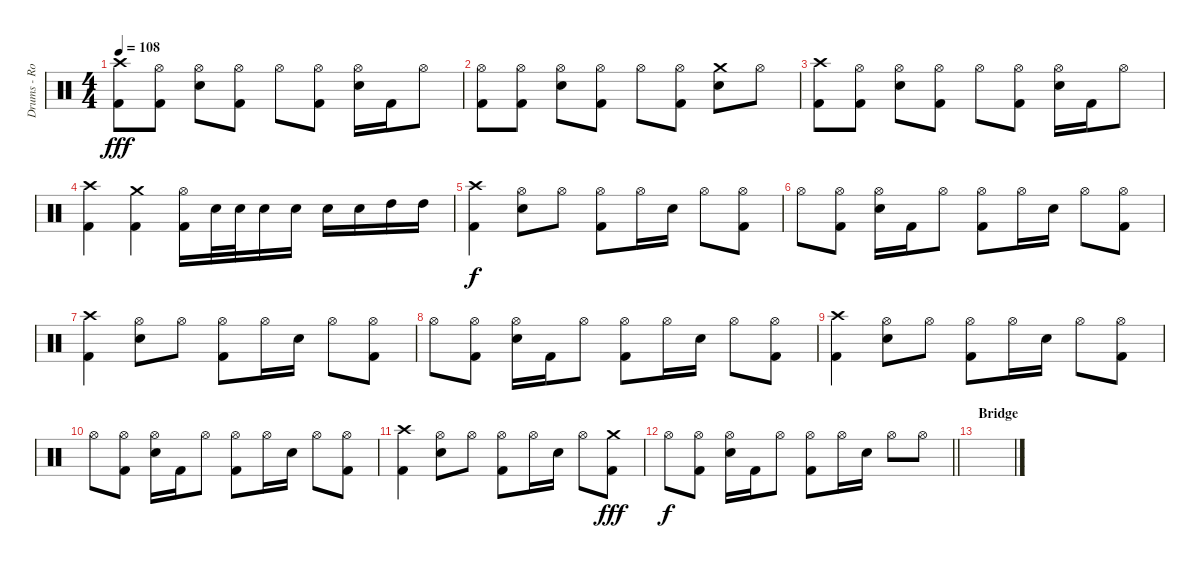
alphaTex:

\track ("Drums - Rob Bourdon" "Drums - Ro") {instrument percussion}
\staff {score}
\articulation defaults
\ts (4 4)
\tempo 108
\clef neutral
\ks c
("Crash high (hit)" "Kick (hit) 2").8{dy fff} ("Hi-Hat (open)" "Kick (hit) 2").8 ("Hi-Hat (open)" "Snare (hit) 2").8 ("Hi-Hat (open)" "Kick (hit) 2").8 "Hi-Hat (open)".8 ("Hi-Hat (open)" "Kick (hit) 2").8 ("Hi-Hat (open)" "Snare (hit) 2").16 "Kick (hit) 2".16 "Hi-Hat (open)".8 |
("Hi-Hat (open)" "Kick (hit) 2").8 ("Hi-Hat (open)" "Kick (hit) 2").8 ("Hi-Hat (open)" "Snare (hit) 2").8 ("Hi-Hat (open)" "Kick (hit) 2").8 "Hi-Hat (open)".8 ("Hi-Hat (open)" "Kick (hit) 2").8 ("Crash medium (hit)" "Snare (hit) 2").8 "Hi-Hat (open)".8 |
("Crash high (hit)" "Kick (hit) 2").8 ("Hi-Hat (open)" "Kick (hit) 2").8 ("Hi-Hat (open)" "Snare (hit) 2").8 ("Hi-Hat (open)" "Kick (hit) 2").8 "Hi-Hat (open)".8 ("Hi-Hat (open)" "Kick (hit) 2").8 ("Hi-Hat (open)" "Snare (hit) 2").16 "Kick (hit) 2".16 "Hi-Hat (open)".8 |
("Crash high (hit)" "Kick (hit) 2").4 ("Crash medium (hit)" "Kick (hit) 2").4 ("Hi-Hat (open)" "Kick (hit) 2").16 "Snare (hit) 2".32 "Snare (hit) 2".32 "Snare (hit) 2".16 "Snare (hit) 2".16 "Snare (hit) 2".16 "Snare (hit) 2".16 "High Tom (hit)".16 "High Tom (hit)".16 |
("Crash high (hit)" "Kick (hit) 2").4{dy f} ("Hi-Hat (open)" "Snare (hit) 2").8 "Hi-Hat (open)".8 ("Hi-Hat (open)" "Kick (hit) 2").8 "Hi-Hat (open)".16 "Snare (hit) 2".16 "Hi-Hat (open)".8 ("Hi-Hat (open)" "Kick (hit) 2").8 |
"Hi-Hat (open)".8 ("Hi-Hat (open)" "Kick (hit) 2").8 ("Hi-Hat (open)" "Snare (hit) 2").16 "Kick (hit) 2".16 "Hi-Hat (open)".8 ("Hi-Hat (open)" "Kick (hit) 2").8 "Hi-Hat (open)".16 "Snare (hit) 2".16 "Hi-Hat (open)".8 ("Hi-Hat (open)" "Kick (hit) 2").8 |
("Crash high (hit)" "Kick (hit) 2").4 ("Hi-Hat (open)" "Snare (hit) 2").8 "Hi-Hat (open)".8 ("Hi-Hat (open)" "Kick (hit) 2").8 "Hi-Hat (open)".16 "Snare (hit) 2".16 "Hi-Hat (open)".8 ("Hi-Hat (open)" "Kick (hit) 2").8 |
"Hi-Hat (open)".8 ("Hi-Hat (open)" "Kick (hit) 2").8 ("Hi-Hat (open)" "Snare (hit) 2").16 "Kick (hit) 2".16 "Hi-Hat (open)".8 ("Hi-Hat (open)" "Kick (hit) 2").8 "Hi-Hat (open)".16 "Snare (hit) 2".16 "Hi-Hat (open)".8 ("Hi-Hat (open)" "Kick (hit) 2").8 |
("Crash high (hit)" "Kick (hit) 2").4 ("Hi-Hat (open)" "Snare (hit) 2").8 "Hi-Hat (open)".8 ("Hi-Hat (open)" "Kick (hit) 2").8 "Hi-Hat (open)".16 "Snare (hit) 2".16 "Hi-Hat (open)".8 ("Hi-Hat (open)" "Kick (hit) 2").8 |
"Hi-Hat (open)".8 ("Hi-Hat (open)" "Kick (hit) 2").8 ("Hi-Hat (open)" "Snare (hit) 2").16 "Kick (hit) 2".16 "Hi-Hat (open)".8 ("Hi-Hat (open)" "Kick (hit) 2").8 "Hi-Hat (open)".16 "Snare (hit) 2".16 "Hi-Hat (open)".8 ("Hi-Hat (open)" "Kick (hit) 2").8 |
("Crash high (hit)" "Kick (hit) 2").4 ("Hi-Hat (open)" "Snare (hit) 2").8 "Hi-Hat (open)".8 ("Hi-Hat (open)" "Kick (hit) 2").8 "Hi-Hat (open)".16 "Snare (hit) 2".16 "Hi-Hat (open)".8 ("Crash medium (hit)" "Kick (hit) 2").8{dy fff} |
\barLineRight lightlight "Hi-Hat (open)".8{dy f}
("Hi-Hat (open)" "Kick (hit) 2").8 ("Hi-Hat (open)" "Snare (hit) 2").16 "Kick (hit) 2".16 "Hi-Hat (open)".8 ("Hi-Hat (open)" "Kick (hit) 2").8 "Hi-Hat (open)".16 "Snare (hit) 2".16 "Hi-Hat (open)".8 "Hi-Hat (open)".8 |
\section ("" "Bridge")
